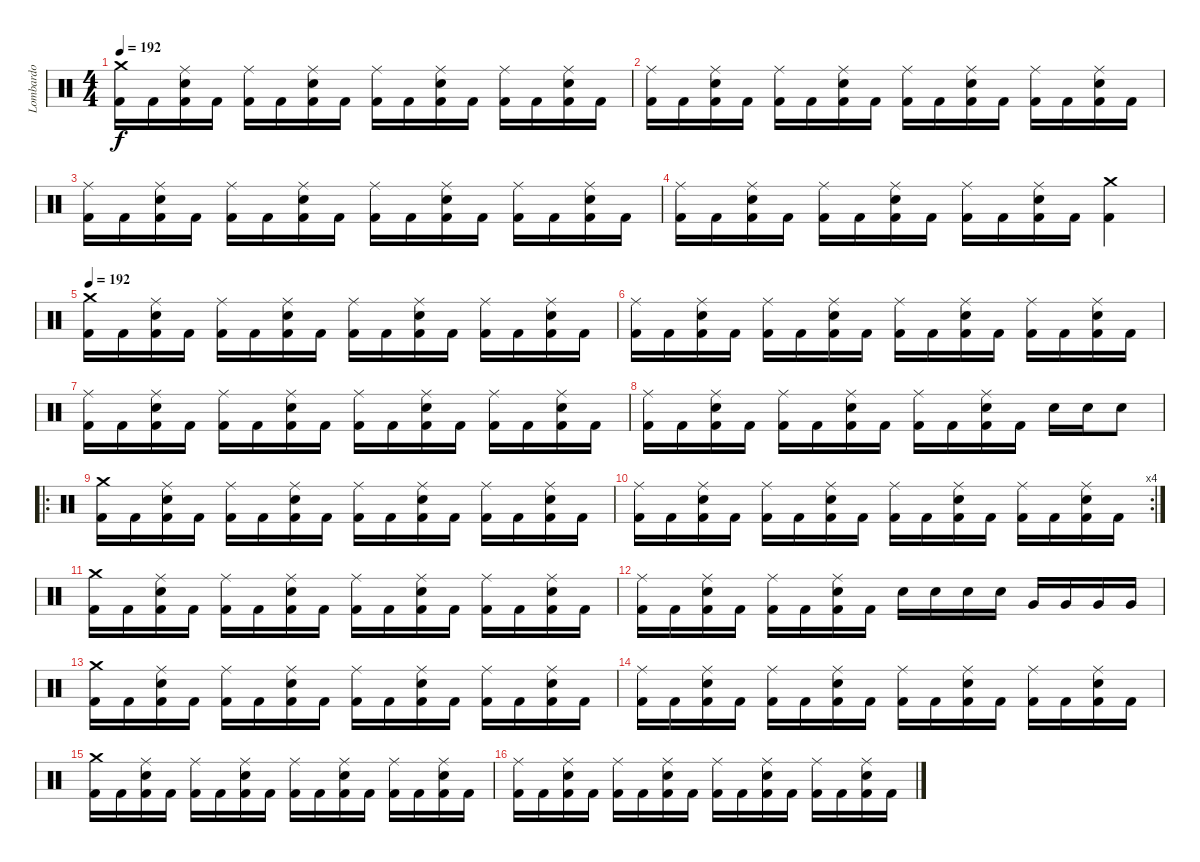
\track ("Lombardo" "Lombardo") {instrument percussion}
\staff {score}
\articulation defaults
\ts (4 4)
\tempo 192
\clef neutral
\ks c
("Crash medium (hit)" "Kick (hit) 2").16{dy f} "Kick (hit) 2".16 ("Ride (middle)" "Snare (hit) 2" "Kick (hit) 2").16 "Kick (hit) 2".16 ("Ride (middle)" "Kick (hit) 2").16 "Kick (hit) 2".16 ("Ride (middle)" "Snare (hit) 2" "Kick (hit) 2").16 "Kick (hit) 2".16 ("Ride (middle)" "Kick (hit) 2").16 "Kick (hit) 2".16 ("Ride (middle)" "Snare (hit) 2" "Kick (hit) 2").16 "Kick (hit) 2".16 ("Ride (middle)" "Kick (hit) 2").16 "Kick (hit) 2".16 ("Ride (middle)" "Snare (hit) 2" "Kick (hit) 2").16 "Kick (hit) 2".16 |
("Ride (middle)" "Kick (hit) 2").16 "Kick (hit) 2".16 ("Ride (middle)" "Snare (hit) 2" "Kick (hit) 2").16 "Kick (hit) 2".16 ("Ride (middle)" "Kick (hit) 2").16 "Kick (hit) 2".16 ("Ride (middle)" "Snare (hit) 2" "Kick (hit) 2").16 "Kick (hit) 2".16 ("Ride (middle)" "Kick (hit) 2").16 "Kick (hit) 2".16 ("Ride (middle)" "Snare (hit) 2" "Kick (hit) 2").16 "Kick (hit) 2".16 ("Ride (middle)" "Kick (hit) 2").16 "Kick (hit) 2".16 ("Ride (middle)" "Snare (hit) 2" "Kick (hit) 2").16 "Kick (hit) 2".16 |
("Ride (middle)" "Kick (hit) 2").16 "Kick (hit) 2".16 ("Ride (middle)" "Snare (hit) 2" "Kick (hit) 2").16 "Kick (hit) 2".16 ("Ride (middle)" "Kick (hit) 2").16 "Kick (hit) 2".16 ("Ride (middle)" "Snare (hit) 2" "Kick (hit) 2").16 "Kick (hit) 2".16 ("Ride (middle)" "Kick (hit) 2").16 "Kick (hit) 2".16 ("Ride (middle)" "Snare (hit) 2" "Kick (hit) 2").16 "Kick (hit) 2".16 ("Ride (middle)" "Kick (hit) 2").16 "Kick (hit) 2".16 ("Ride (middle)" "Snare (hit) 2" "Kick (hit) 2").16 "Kick (hit) 2".16 |
("Ride (middle)" "Kick (hit) 2").16 "Kick (hit) 2".16 ("Ride (middle)" "Snare (hit) 2" "Kick (hit) 2").16 "Kick (hit) 2".16 ("Ride (middle)" "Kick (hit) 2").16 "Kick (hit) 2".16 ("Ride (middle)" "Snare (hit) 2" "Kick (hit) 2").16 "Kick (hit) 2".16 ("Ride (middle)" "Kick (hit) 2").16 "Kick (hit) 2".16 ("Ride (middle)" "Snare (hit) 2" "Kick (hit) 2").16 "Kick (hit) 2".16 ("Crash medium (hit)" "Kick (hit) 2").4 |
\tempo 192
("Crash medium (hit)" "Kick (hit) 2").16 "Kick (hit) 2".16 ("Ride (middle)" "Snare (hit) 2" "Kick (hit) 2").16 "Kick (hit) 2".16 ("Ride (middle)" "Kick (hit) 2").16 "Kick (hit) 2".16 ("Ride (middle)" "Snare (hit) 2" "Kick (hit) 2").16 "Kick (hit) 2".16 ("Ride (middle)" "Kick (hit) 2").16 "Kick (hit) 2".16 ("Ride (middle)" "Snare (hit) 2" "Kick (hit) 2").16 "Kick (hit) 2".16 ("Ride (middle)" "Kick (hit) 2").16 "Kick (hit) 2".16 ("Ride (middle)" "Snare (hit) 2" "Kick (hit) 2").16 "Kick (hit) 2".16 |
("Ride (middle)" "Kick (hit) 2").16 "Kick (hit) 2".16 ("Ride (middle)" "Snare (hit) 2" "Kick (hit) 2").16 "Kick (hit) 2".16 ("Ride (middle)" "Kick (hit) 2").16 "Kick (hit) 2".16 ("Ride (middle)" "Snare (hit) 2" "Kick (hit) 2").16 "Kick (hit) 2".16 ("Ride (middle)" "Kick (hit) 2").16 "Kick (hit) 2".16 ("Ride (middle)" "Snare (hit) 2" "Kick (hit) 2").16 "Kick (hit) 2".16 ("Ride (middle)" "Kick (hit) 2").16 "Kick (hit) 2".16 ("Ride (middle)" "Snare (hit) 2" "Kick (hit) 2").16 "Kick (hit) 2".16 |
("Ride (middle)" "Kick (hit) 2").16 "Kick (hit) 2".16 ("Ride (middle)" "Snare (hit) 2" "Kick (hit) 2").16 "Kick (hit) 2".16 ("Ride (middle)" "Kick (hit) 2").16 "Kick (hit) 2".16 ("Ride (middle)" "Snare (hit) 2" "Kick (hit) 2").16 "Kick (hit) 2".16 ("Ride (middle)" "Kick (hit) 2").16 "Kick (hit) 2".16 ("Ride (middle)" "Snare (hit) 2" "Kick (hit) 2").16 "Kick (hit) 2".16 ("Ride (middle)" "Kick (hit) 2").16 "Kick (hit) 2".16 ("Ride (middle)" "Snare (hit) 2" "Kick (hit) 2").16 "Kick (hit) 2".16 |
("Ride (middle)" "Kick (hit) 2").16 "Kick (hit) 2".16 ("Ride (middle)" "Snare (hit) 2" "Kick (hit) 2").16 "Kick (hit) 2".16 ("Ride (middle)" "Kick (hit) 2").16 "Kick (hit) 2".16 ("Ride (middle)" "Snare (hit) 2" "Kick (hit) 2").16 "Kick (hit) 2".16 ("Ride (middle)" "Kick (hit) 2").16 "Kick (hit) 2".16 ("Ride (middle)" "Snare (hit) 2" "Kick (hit) 2").16 "Kick (hit) 2".16 "Snare (hit) 2".16 "Snare (hit) 2".16 "Snare (hit) 2".8 |
\ro
("Crash medium (hit)" "Kick (hit) 2").16 "Kick (hit) 2".16 ("Ride (middle)" "Snare (hit) 2" "Kick (hit) 2").16 "Kick (hit) 2".16 ("Ride (middle)" "Kick (hit) 2").16 "Kick (hit) 2".16 ("Ride (middle)" "Snare (hit) 2" "Kick (hit) 2").16 "Kick (hit) 2".16 ("Ride (middle)" "Kick (hit) 2").16 "Kick (hit) 2".16 ("Ride (middle)" "Snare (hit) 2" "Kick (hit) 2").16 "Kick (hit) 2".16 ("Ride (middle)" "Kick (hit) 2").16 "Kick (hit) 2".16 ("Ride (middle)" "Snare (hit) 2" "Kick (hit) 2").16 "Kick (hit) 2".16 |
\rc 4
("Ride (middle)" "Kick (hit) 2").16 "Kick (hit) 2".16 ("Ride (middle)" "Snare (hit) 2" "Kick (hit) 2").16 "Kick (hit) 2".16 ("Ride (middle)" "Kick (hit) 2").16 "Kick (hit) 2".16 ("Ride (middle)" "Snare (hit) 2" "Kick (hit) 2").16 "Kick (hit) 2".16 ("Ride (middle)" "Kick (hit) 2").16 "Kick (hit) 2".16 ("Ride (middle)" "Snare (hit) 2" "Kick (hit) 2").16 "Kick (hit) 2".16 ("Ride (middle)" "Kick (hit) 2").16 "Kick (hit) 2".16 ("Ride (middle)" "Snare (hit) 2" "Kick (hit) 2").16 "Kick (hit) 2".16 |
("Crash medium (hit)" "Kick (hit) 2").16 "Kick (hit) 2".16 ("Ride (middle)" "Snare (hit) 2" "Kick (hit) 2").16 "Kick (hit) 2".16 ("Ride (middle)" "Kick (hit) 2").16 "Kick (hit) 2".16 ("Ride (middle)" "Snare (hit) 2" "Kick (hit) 2").16 "Kick (hit) 2".16 ("Ride (middle)" "Kick (hit) 2").16 "Kick (hit) 2".16 ("Ride (middle)" "Snare (hit) 2" "Kick (hit) 2").16 "Kick (hit) 2".16 ("Ride (middle)" "Kick (hit) 2").16 "Kick (hit) 2".16 ("Ride (middle)" "Snare (hit) 2" "Kick (hit) 2").16 "Kick (hit) 2".16 |
("Ride (middle)" "Kick (hit) 2").16 "Kick (hit) 2".16 ("Ride (middle)" "Snare (hit) 2" "Kick (hit) 2").16 "Kick (hit) 2".16 ("Ride (middle)" "Kick (hit) 2").16 "Kick (hit) 2".16 ("Ride (middle)" "Snare (hit) 2" "Kick (hit) 2").16 "Kick (hit) 2".16 "Snare (hit) 2".16 "Snare (hit) 2".16 "Snare (hit) 2".16 "Snare (hit) 2".16 "Very Low Tom (hit)".16 "Very Low Tom (hit)".16 "Very Low Tom (hit)".16 "Very Low Tom (hit)".16 |
("Crash medium (hit)" "Kick (hit) 2").16 "Kick (hit) 2".16 ("Ride (middle)" "Snare (hit) 2" "Kick (hit) 2").16 "Kick (hit) 2".16 ("Ride (middle)" "Kick (hit) 2").16 "Kick (hit) 2".16 ("Ride (middle)" "Snare (hit) 2" "Kick (hit) 2").16 "Kick (hit) 2".16 ("Ride (middle)" "Kick (hit) 2").16 "Kick (hit) 2".16 ("Ride (middle)" "Snare (hit) 2" "Kick (hit) 2").16 "Kick (hit) 2".16 ("Ride (middle)" "Kick (hit) 2").16 "Kick (hit) 2".16 ("Ride (middle)" "Snare (hit) 2" "Kick (hit) 2").16 "Kick (hit) 2".16 |
("Ride (middle)" "Kick (hit) 2").16 "Kick (hit) 2".16 ("Ride (middle)" "Snare (hit) 2" "Kick (hit) 2").16 "Kick (hit) 2".16 ("Ride (middle)" "Kick (hit) 2").16 "Kick (hit) 2".16 ("Ride (middle)" "Snare (hit) 2" "Kick (hit) 2").16 "Kick (hit) 2".16 ("Ride (middle)" "Kick (hit) 2").16 "Kick (hit) 2".16 ("Ride (middle)" "Snare (hit) 2" "Kick (hit) 2").16 "Kick (hit) 2".16 ("Ride (middle)" "Kick (hit) 2").16 "Kick (hit) 2".16 ("Ride (middle)" "Snare (hit) 2" "Kick (hit) 2").16 "Kick (hit) 2".16 |
("Crash medium (hit)" "Kick (hit) 2").16 "Kick (hit) 2".16 ("Ride (middle)" "Snare (hit) 2" "Kick (hit) 2").16 "Kick (hit) 2".16 ("Ride (middle)" "Kick (hit) 2").16 "Kick (hit) 2".16 ("Ride (middle)" "Snare (hit) 2" "Kick (hit) 2").16 "Kick (hit) 2".16 ("Ride (middle)" "Kick (hit) 2").16 "Kick (hit) 2".16 ("Ride (middle)" "Snare (hit) 2" "Kick (hit) 2").16 "Kick (hit) 2".16 ("Ride (middle)" "Kick (hit) 2").16 "Kick (hit) 2".16 ("Ride (middle)" "Snare (hit) 2" "Kick (hit) 2").16 "Kick (hit) 2".16 |
("Ride (middle)" "Kick (hit) 2").16 "Kick (hit) 2".16 ("Ride (middle)" "Snare (hit) 2" "Kick (hit) 2").16 "Kick (hit) 2".16 ("Ride (middle)" "Kick (hit) 2").16 "Kick (hit) 2".16 ("Ride (middle)" "Snare (hit) 2" "Kick (hit) 2").16 "Kick (hit) 2".16 ("Ride (middle)" "Kick (hit) 2").16 "Kick (hit) 2".16 ("Ride (middle)" "Snare (hit) 2" "Kick (hit) 2").16 "Kick (hit) 2".16 ("Ride (middle)" "Kick (hit) 2").16 "Kick (hit) 2".16 ("Ride (middle)" "Snare (hit) 2" "Kick (hit) 2").16 "Kick (hit) 2".16
